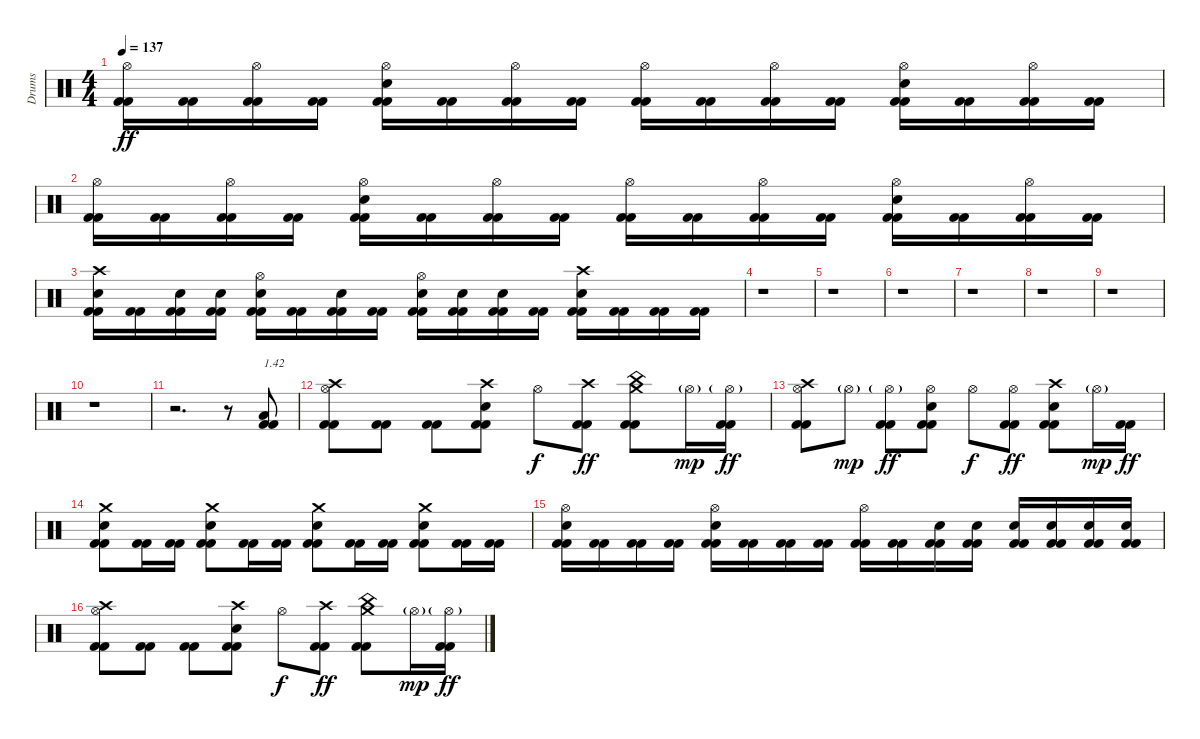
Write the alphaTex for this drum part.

\track ("Drums" "Drums") {instrument percussion}
\staff {score}
\articulation defaults
\ts (4 4)
\tempo 137
\clef neutral
\ks c
("Hi-Hat (open)" "Kick (hit) 2" "Kick (hit) 2").16{dy ff} ("Kick (hit) 2" "Kick (hit) 2").16 ("Hi-Hat (open)" "Kick (hit) 2" "Kick (hit) 2").16 ("Kick (hit) 2" "Kick (hit) 2").16 ("Hi-Hat (open)" "Electric Snare (hit)" "Kick (hit) 2" "Kick (hit) 2").16 ("Kick (hit) 2" "Kick (hit) 2").16 ("Hi-Hat (open)" "Kick (hit) 2" "Kick (hit) 2").16 ("Kick (hit) 2" "Kick (hit) 2").16 ("Hi-Hat (open)" "Kick (hit) 2" "Kick (hit) 2").16 ("Kick (hit) 2" "Kick (hit) 2").16 ("Hi-Hat (open)" "Kick (hit) 2" "Kick (hit) 2").16 ("Kick (hit) 2" "Kick (hit) 2").16 ("Hi-Hat (open)" "Electric Snare (hit)" "Kick (hit) 2" "Kick (hit) 2").16 ("Kick (hit) 2" "Kick (hit) 2").16 ("Hi-Hat (open)" "Kick (hit) 2" "Kick (hit) 2").16 ("Kick (hit) 2" "Kick (hit) 2").16 |
("Hi-Hat (open)" "Kick (hit) 2" "Kick (hit) 2").16 ("Kick (hit) 2" "Kick (hit) 2").16 ("Hi-Hat (open)" "Kick (hit) 2" "Kick (hit) 2").16 ("Kick (hit) 2" "Kick (hit) 2").16 ("Hi-Hat (open)" "Electric Snare (hit)" "Kick (hit) 2" "Kick (hit) 2").16 ("Kick (hit) 2" "Kick (hit) 2").16 ("Hi-Hat (open)" "Kick (hit) 2" "Kick (hit) 2").16 ("Kick (hit) 2" "Kick (hit) 2").16 ("Hi-Hat (open)" "Kick (hit) 2" "Kick (hit) 2").16 ("Kick (hit) 2" "Kick (hit) 2").16 ("Hi-Hat (open)" "Kick (hit) 2" "Kick (hit) 2").16 ("Kick (hit) 2" "Kick (hit) 2").16 ("Hi-Hat (open)" "Electric Snare (hit)" "Kick (hit) 2" "Kick (hit) 2").16 ("Kick (hit) 2" "Kick (hit) 2").16 ("Hi-Hat (open)" "Kick (hit) 2" "Kick (hit) 2").16 ("Kick (hit) 2" "Kick (hit) 2").16 |
("Electric Snare (hit)" "Crash high (hit)" "Kick (hit) 2" "Kick (hit) 2").16 ("Kick (hit) 2" "Kick (hit) 2").16 ("Electric Snare (hit)" "Kick (hit) 2" "Kick (hit) 2").16 ("Electric Snare (hit)" "Kick (hit) 2" "Kick (hit) 2").16 ("Electric Snare (hit)" "Hi-Hat (open)" "Kick (hit) 2" "Kick (hit) 2").16 ("Kick (hit) 2" "Kick (hit) 2").16 ("Electric Snare (hit)" "Kick (hit) 2" "Kick (hit) 2").16 ("Kick (hit) 2" "Kick (hit) 2").16 ("Electric Snare (hit)" "Hi-Hat (open)" "Kick (hit) 2" "Kick (hit) 2").16 ("Electric Snare (hit)" "Kick (hit) 2" "Kick (hit) 2").16 ("Electric Snare (hit)" "Kick (hit) 2" "Kick (hit) 2").16 ("Kick (hit) 2" "Kick (hit) 2").16 ("Electric Snare (hit)" "Crash high (hit)" "Kick (hit) 2" "Kick (hit) 2").16 ("Kick (hit) 2" "Kick (hit) 2").16 ("Kick (hit) 2" "Kick (hit) 2").16 ("Kick (hit) 2" "Kick (hit) 2").16 |
r.1 |
r.1 |
r.1 |
r.1 |
r.1 |
r.1 |
r.1 |
r.2{d} r.8 ("Low Tom (hit)" "Kick (hit) 2" "Kick (hit) 2").8{txt "1.42"} |
("Hi-Hat (open)" "Crash high (hit)" "Kick (hit) 2" "Kick (hit) 2").8 ("Kick (hit) 2" "Kick (hit) 2").8 ("Kick (hit) 2" "Kick (hit) 2").8 ("Crash high (hit)" "Electric Snare (hit)" "Kick (hit) 2" "Kick (hit) 2").8 "Hi-Hat (open)".8{dy f} ("Crash high (hit)" "Kick (hit) 2" "Kick (hit) 2").8{dy ff} ("China (hit)" "Crash medium (hit)" "Kick (hit) 2" "Kick (hit) 2").8 "Hi-Hat (open)"{g}.16{dy mp} ("Hi-Hat (open)"{g} "Kick (hit) 2" "Kick (hit) 2").16{dy ff} |
("Hi-Hat (open)" "Crash high (hit)" "Kick (hit) 2" "Kick (hit) 2").8 "Hi-Hat (open)"{g}.8{dy mp} ("Hi-Hat (open)"{g} "Kick (hit) 2" "Kick (hit) 2").8{dy ff} ("Hi-Hat (open)" "Electric Snare (hit)" "Kick (hit) 2" "Kick (hit) 2").8 "Hi-Hat (open)".8{dy f} ("Hi-Hat (open)" "Kick (hit) 2" "Kick (hit) 2").8{dy ff} ("Crash high (hit)" "Electric Snare (hit)" "Kick (hit) 2" "Kick (hit) 2").8 "Hi-Hat (open)"{g}.16{dy mp} ("Kick (hit) 2" "Kick (hit) 2").16{dy ff} |
("Crash medium (hit)" "Electric Snare (hit)" "Kick (hit) 2" "Kick (hit) 2").8 ("Kick (hit) 2" "Kick (hit) 2").16 ("Kick (hit) 2" "Kick (hit) 2").16 ("Crash medium (hit)" "Electric Snare (hit)" "Kick (hit) 2" "Kick (hit) 2").8 ("Kick (hit) 2" "Kick (hit) 2").16 ("Kick (hit) 2" "Kick (hit) 2").16 ("Crash medium (hit)" "Electric Snare (hit)" "Kick (hit) 2" "Kick (hit) 2").8 ("Kick (hit) 2" "Kick (hit) 2").16 ("Kick (hit) 2" "Kick (hit) 2").16 ("Crash medium (hit)" "Electric Snare (hit)" "Kick (hit) 2" "Kick (hit) 2").8 ("Kick (hit) 2" "Kick (hit) 2").16 ("Kick (hit) 2" "Kick (hit) 2").16 |
("Hi-Hat (open)" "Electric Snare (hit)" "Kick (hit) 2" "Kick (hit) 2").16 ("Kick (hit) 2" "Kick (hit) 2").16 ("Kick (hit) 2" "Kick (hit) 2").16 ("Kick (hit) 2" "Kick (hit) 2").16 ("Hi-Hat (open)" "Electric Snare (hit)" "Kick (hit) 2" "Kick (hit) 2").16 ("Kick (hit) 2" "Kick (hit) 2").16 ("Kick (hit) 2" "Kick (hit) 2").16 ("Kick (hit) 2" "Kick (hit) 2").16 ("Hi-Hat (open)" "Kick (hit) 2" "Kick (hit) 2").16 ("Kick (hit) 2" "Kick (hit) 2").16 ("Electric Snare (hit)" "Kick (hit) 2" "Kick (hit) 2").16 ("Electric Snare (hit)" "Kick (hit) 2" "Kick (hit) 2").16 ("Electric Snare (hit)" "Kick (hit) 2" "Kick (hit) 2").16 ("Electric Snare (hit)" "Kick (hit) 2" "Kick (hit) 2").16 ("Electric Snare (hit)" "Kick (hit) 2" "Kick (hit) 2").16 ("Electric Snare (hit)" "Kick (hit) 2" "Kick (hit) 2").16 |
("Hi-Hat (open)" "Crash high (hit)" "Kick (hit) 2" "Kick (hit) 2").8 ("Kick (hit) 2" "Kick (hit) 2").8 ("Kick (hit) 2" "Kick (hit) 2").8 ("Crash high (hit)" "Electric Snare (hit)" "Kick (hit) 2" "Kick (hit) 2").8 "Hi-Hat (open)".8{dy f} ("Crash high (hit)" "Kick (hit) 2" "Kick (hit) 2").8{dy ff} ("China (hit)" "Crash medium (hit)" "Kick (hit) 2" "Kick (hit) 2").8 "Hi-Hat (open)"{g}.16{dy mp} ("Hi-Hat (open)"{g} "Kick (hit) 2" "Kick (hit) 2").16{dy ff}
